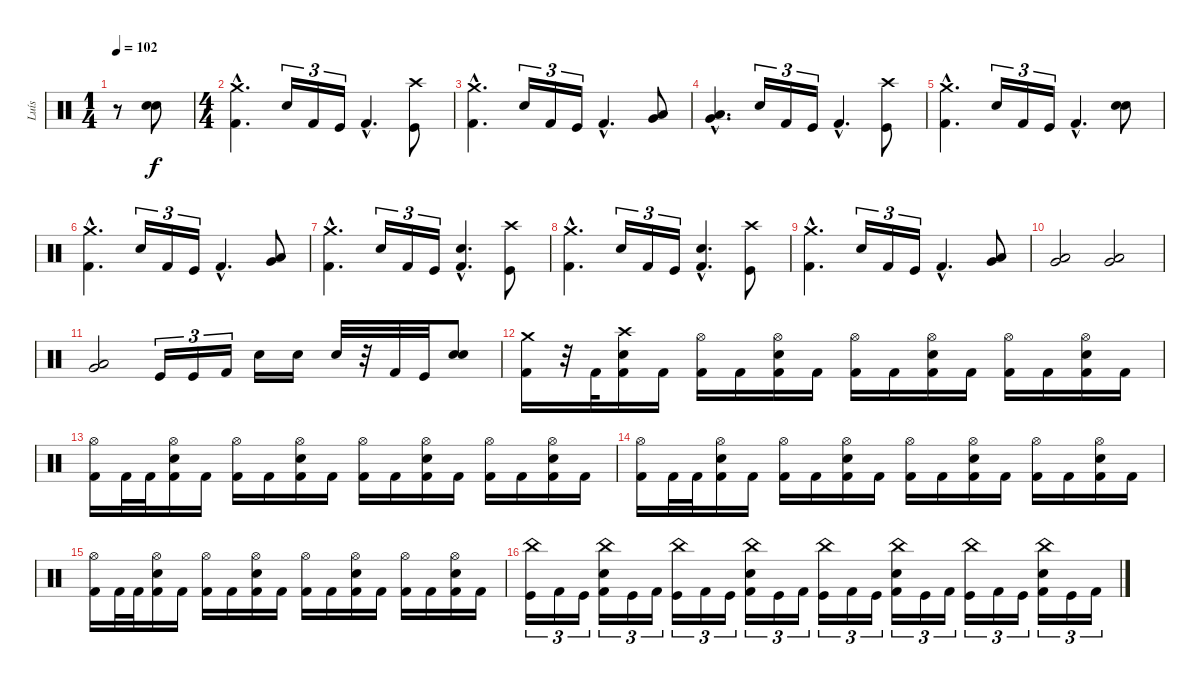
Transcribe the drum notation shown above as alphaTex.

\track ("Luís" "Luís") {instrument percussion}
\staff {score}
\articulation defaults
\ts (1 4)
\tempo 102
\clef neutral
\ks c
r.8{dy f} ("Snare (hit) 2" "Snare (hit) 2").8 |
\ts (4 4)
("Crash medium (hit)"{hac} "Kick (hit) 2"{hac}).4{d} "Snare (hit) 2".16{tu (3 2)} "Kick (hit) 2".16{tu (3 2)} "Kick (hit)".16{tu (3 2)} "Kick (hit) 2"{hac}.4{d} ("Crash high (hit)" "Kick (hit)").8 |
("Crash medium (hit)"{hac} "Kick (hit) 2"{hac}).4{d} "Snare (hit) 2".16{tu (3 2)} "Kick (hit) 2".16{tu (3 2)} "Kick (hit)".16{tu (3 2)} "Kick (hit) 2"{hac}.4{d} ("Very Low Tom (hit)" "Low Tom (hit)").8 |
("Very Low Tom (hit)"{hac} "Low Tom (hit)"{hac}).4{d} "Snare (hit) 2".16{tu (3 2)} "Kick (hit) 2".16{tu (3 2)} "Kick (hit)".16{tu (3 2)} "Kick (hit) 2"{hac}.4{d} ("Crash high (hit)" "Kick (hit)").8 |
("Crash medium (hit)"{hac} "Kick (hit) 2"{hac}).4{d} "Snare (hit) 2".16{tu (3 2)} "Kick (hit) 2".16{tu (3 2)} "Kick (hit)".16{tu (3 2)} "Kick (hit) 2"{hac}.4{d} ("Snare (hit) 2" "Snare (hit) 2").8 |
("Crash medium (hit)"{hac} "Kick (hit) 2"{hac}).4{d} "Snare (hit) 2".16{tu (3 2)} "Kick (hit) 2".16{tu (3 2)} "Kick (hit)".16{tu (3 2)} "Kick (hit) 2"{hac}.4{d} ("Low Tom (hit)" "Very Low Tom (hit)").8 |
("Crash medium (hit)"{hac} "Kick (hit) 2"{hac}).4{d} "Snare (hit) 2".16{tu (3 2)} "Kick (hit) 2".16{tu (3 2)} "Kick (hit)".16{tu (3 2)} ("Snare (hit) 2"{hac} "Kick (hit) 2"{hac}).4{d} ("Crash high (hit)" "Kick (hit)").8 |
("Crash medium (hit)"{hac} "Kick (hit) 2"{hac}).4{d} "Snare (hit) 2".16{tu (3 2)} "Kick (hit) 2".16{tu (3 2)} "Kick (hit)".16{tu (3 2)} ("Snare (hit) 2"{hac} "Kick (hit) 2"{hac}).4{d} ("Crash high (hit)" "Kick (hit)").8 |
("Crash medium (hit)"{hac} "Kick (hit) 2"{hac}).4{d} "Snare (hit) 2".16{tu (3 2)} "Kick (hit) 2".16{tu (3 2)} "Kick (hit)".16{tu (3 2)} "Kick (hit) 2"{hac}.4{d} ("Very Low Tom (hit)" "Low Tom (hit)").8 |
("Very Low Tom (hit)" "Low Tom (hit)").2 ("Very Low Tom (hit)" "Low Tom (hit)").2 |
("Low Tom (hit)" "Very Low Tom (hit)").2 "Kick (hit)".16{tu (3 2)} "Kick (hit)".16{tu (3 2)} "Kick (hit) 2".16{tu (3 2)} "Snare (hit) 2".16 "Snare (hit) 2".16 "Snare (hit) 2".32 r.32 "Kick (hit) 2".32 "Kick (hit)".32 ("Snare (hit) 2" "Snare (hit) 2").8 |
("Crash medium (hit)" "Kick (hit) 2").16 r.32 "Kick (hit) 2".32 ("Crash high (hit)" "Snare (hit) 2" "Kick (hit) 2").16 "Kick (hit) 2".16 ("Hi-Hat (open)" "Kick (hit) 2").16 "Kick (hit) 2".16 ("Hi-Hat (open)" "Snare (hit) 2" "Kick (hit) 2").16 "Kick (hit) 2".16 ("Hi-Hat (open)" "Kick (hit) 2").16 "Kick (hit) 2".16 ("Hi-Hat (open)" "Snare (hit) 2" "Kick (hit) 2").16 "Kick (hit) 2".16 ("Hi-Hat (open)" "Kick (hit) 2").16 "Kick (hit) 2".16 ("Hi-Hat (open)" "Snare (hit) 2" "Kick (hit) 2").16 "Kick (hit) 2".16 |
("Hi-Hat (open)" "Kick (hit) 2").16 "Kick (hit) 2".32 "Kick (hit) 2".32 ("Hi-Hat (open)" "Snare (hit) 2" "Kick (hit) 2").16 "Kick (hit) 2".16 ("Hi-Hat (open)" "Kick (hit) 2").16 "Kick (hit) 2".16 ("Hi-Hat (open)" "Snare (hit) 2" "Kick (hit) 2").16 "Kick (hit) 2".16 ("Hi-Hat (open)" "Kick (hit) 2").16 "Kick (hit) 2".16 ("Hi-Hat (open)" "Snare (hit) 2" "Kick (hit) 2").16 "Kick (hit) 2".16 ("Hi-Hat (open)" "Kick (hit) 2").16 "Kick (hit) 2".16 ("Hi-Hat (open)" "Snare (hit) 2" "Kick (hit) 2").16 "Kick (hit) 2".16 |
("Hi-Hat (open)" "Kick (hit) 2").16 "Kick (hit) 2".32 "Kick (hit) 2".32 ("Hi-Hat (open)" "Snare (hit) 2" "Kick (hit) 2").16 "Kick (hit) 2".16 ("Hi-Hat (open)" "Kick (hit) 2").16 "Kick (hit) 2".16 ("Hi-Hat (open)" "Snare (hit) 2" "Kick (hit) 2").16 "Kick (hit) 2".16 ("Hi-Hat (open)" "Kick (hit) 2").16 "Kick (hit) 2".16 ("Hi-Hat (open)" "Snare (hit) 2" "Kick (hit) 2").16 "Kick (hit) 2".16 ("Hi-Hat (open)" "Kick (hit) 2").16 "Kick (hit) 2".16 ("Hi-Hat (open)" "Snare (hit) 2" "Kick (hit) 2").16 "Kick (hit) 2".16 |
("Hi-Hat (open)" "Kick (hit) 2").16 "Kick (hit) 2".32 "Kick (hit) 2".32 ("Hi-Hat (open)" "Snare (hit) 2" "Kick (hit) 2").16 "Kick (hit) 2".16 ("Hi-Hat (open)" "Kick (hit) 2").16 "Kick (hit) 2".16 ("Hi-Hat (open)" "Snare (hit) 2" "Kick (hit) 2").16 "Kick (hit) 2".16 ("Hi-Hat (open)" "Kick (hit) 2").16 "Kick (hit) 2".16 ("Hi-Hat (open)" "Snare (hit) 2" "Kick (hit) 2").16 "Kick (hit) 2".16 ("Hi-Hat (open)" "Kick (hit) 2").16 "Kick (hit) 2".16 ("Hi-Hat (open)" "Snare (hit) 2" "Kick (hit) 2").16 "Kick (hit) 2".16 |
("China (hit)" "Kick (hit)").16{tu (3 2)} "Kick (hit) 2".16{tu (3 2)} "Kick (hit)".16{tu (3 2)} ("China (hit)" "Snare (hit) 2" "Kick (hit) 2").16{tu (3 2)} "Kick (hit)".16{tu (3 2)} "Kick (hit) 2".16{tu (3 2)} ("China (hit)" "Kick (hit)").16{tu (3 2)} "Kick (hit) 2".16{tu (3 2)} "Kick (hit)".16{tu (3 2)} ("China (hit)" "Snare (hit) 2" "Kick (hit) 2").16{tu (3 2)} "Kick (hit)".16{tu (3 2)} "Kick (hit) 2".16{tu (3 2)} ("China (hit)" "Kick (hit)").16{tu (3 2)} "Kick (hit) 2".16{tu (3 2)} "Kick (hit)".16{tu (3 2)} ("China (hit)" "Snare (hit) 2" "Kick (hit) 2").16{tu (3 2)} "Kick (hit)".16{tu (3 2)} "Kick (hit) 2".16{tu (3 2)} ("China (hit)" "Kick (hit)").16{tu (3 2)} "Kick (hit) 2".16{tu (3 2)} "Kick (hit)".16{tu (3 2)} ("China (hit)" "Snare (hit) 2" "Kick (hit) 2").16{tu (3 2)} "Kick (hit)".16{tu (3 2)} "Kick (hit) 2".16{tu (3 2)}
